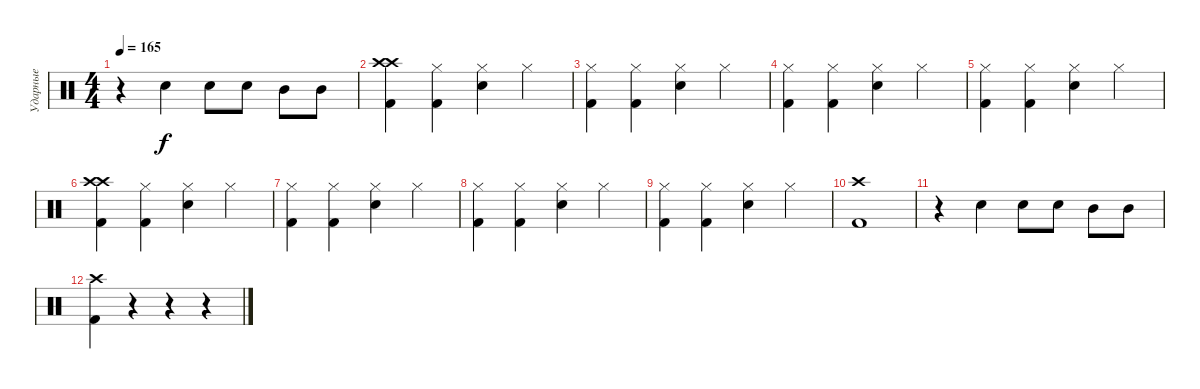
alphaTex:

\track ("Ударные" "Ударные") {instrument percussion}
\staff {score}
\articulation defaults
\ts (4 4)
\tempo 165
\clef neutral
\ks c
r.4{dy f} "Snare (hit) 2".4 "Snare (hit) 2".8 "Snare (hit) 2".8 "Mid Tom (hit)".8 "Mid Tom (hit)".8 |
("Crash high (hit)" "Crash high (hit)" "Kick (hit) 2").4 ("Hi-Hat (closed)" "Kick (hit) 2").4 ("Hi-Hat (closed)" "Snare (hit) 2").4 "Hi-Hat (closed)".4 |
("Hi-Hat (closed)" "Kick (hit) 2").4 ("Hi-Hat (closed)" "Kick (hit) 2").4 ("Hi-Hat (closed)" "Snare (hit) 2").4 "Hi-Hat (closed)".4 |
("Hi-Hat (closed)" "Kick (hit) 2").4 ("Hi-Hat (closed)" "Kick (hit) 2").4 ("Hi-Hat (closed)" "Snare (hit) 2").4 "Hi-Hat (closed)".4 |
("Hi-Hat (closed)" "Kick (hit) 2").4 ("Hi-Hat (closed)" "Kick (hit) 2").4 ("Hi-Hat (closed)" "Snare (hit) 2").4 "Hi-Hat (closed)".4 |
("Crash high (hit)" "Crash high (hit)" "Kick (hit) 2").4 ("Hi-Hat (closed)" "Kick (hit) 2").4 ("Hi-Hat (closed)" "Snare (hit) 2").4 "Hi-Hat (closed)".4 |
("Hi-Hat (closed)" "Kick (hit) 2").4 ("Hi-Hat (closed)" "Kick (hit) 2").4 ("Hi-Hat (closed)" "Snare (hit) 2").4 "Hi-Hat (closed)".4 |
("Hi-Hat (closed)" "Kick (hit) 2").4 ("Hi-Hat (closed)" "Kick (hit) 2").4 ("Hi-Hat (closed)" "Snare (hit) 2").4 "Hi-Hat (closed)".4 |
("Hi-Hat (closed)" "Kick (hit) 2").4 ("Hi-Hat (closed)" "Kick (hit) 2").4 ("Hi-Hat (closed)" "Snare (hit) 2").4 "Hi-Hat (closed)".4 |
("Crash high (hit)" "Kick (hit) 2").1 |
r.4 "Snare (hit) 2".4 "Snare (hit) 2".8 "Snare (hit) 2".8 "Mid Tom (hit)".8 "Mid Tom (hit)".8 |
("Crash high (hit)" "Kick (hit) 2").4 r.4 r.4 r.4
